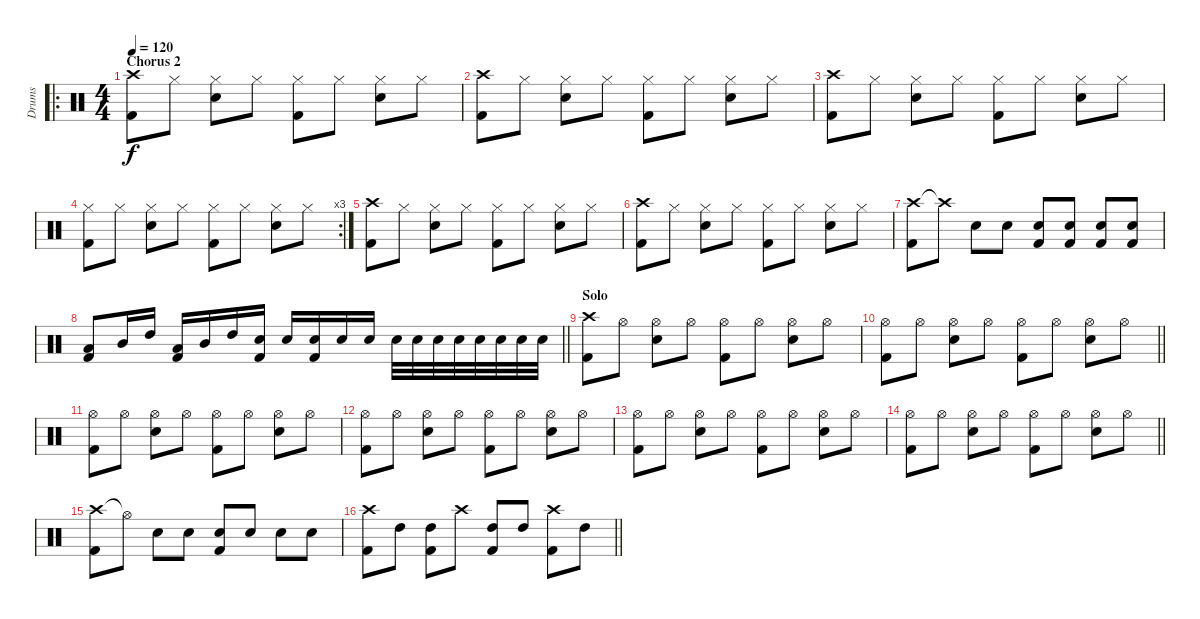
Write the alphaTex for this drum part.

\track ("Drums" "Drums") {instrument percussion}
\staff {score}
\articulation defaults
\ro
\ts (4 4)
\section ("" "Chorus 2")
\tempo 120
\clef neutral
\ks c
("Crash high (hit)" "Kick (hit) 2").8{dy f} "Hi-Hat (closed)".8 ("Hi-Hat (closed)" "Snare (hit) 2").8 "Hi-Hat (closed)".8 ("Hi-Hat (closed)" "Kick (hit) 2").8 "Hi-Hat (closed)".8 ("Hi-Hat (closed)" "Snare (hit) 2").8 "Hi-Hat (closed)".8 |
("Crash high (hit)" "Kick (hit) 2").8 "Hi-Hat (closed)".8 ("Hi-Hat (closed)" "Snare (hit) 2").8 "Hi-Hat (closed)".8 ("Hi-Hat (closed)" "Kick (hit) 2").8 "Hi-Hat (closed)".8 ("Hi-Hat (closed)" "Snare (hit) 2").8 "Hi-Hat (closed)".8 |
("Crash high (hit)" "Kick (hit) 2").8 "Hi-Hat (closed)".8 ("Hi-Hat (closed)" "Snare (hit) 2").8 "Hi-Hat (closed)".8 ("Hi-Hat (closed)" "Kick (hit) 2").8 "Hi-Hat (closed)".8 ("Hi-Hat (closed)" "Snare (hit) 2").8 "Hi-Hat (closed)".8 |
\rc 3
("Hi-Hat (closed)" "Kick (hit) 2").8 "Hi-Hat (closed)".8 ("Hi-Hat (closed)" "Snare (hit) 2").8 "Hi-Hat (closed)".8 ("Hi-Hat (closed)" "Kick (hit) 2").8 "Hi-Hat (closed)".8 ("Hi-Hat (closed)" "Snare (hit) 2").8 "Hi-Hat (closed)".8 |
("Crash high (hit)" "Kick (hit) 2").8 "Hi-Hat (closed)".8 ("Hi-Hat (closed)" "Snare (hit) 2").8 "Hi-Hat (closed)".8 ("Hi-Hat (closed)" "Kick (hit) 2").8 "Hi-Hat (closed)".8 ("Hi-Hat (closed)" "Snare (hit) 2").8 "Hi-Hat (closed)".8 |
("Crash high (hit)" "Kick (hit) 2").8 "Hi-Hat (closed)".8 ("Hi-Hat (closed)" "Snare (hit) 2").8 "Hi-Hat (closed)".8 ("Hi-Hat (closed)" "Kick (hit) 2").8 "Hi-Hat (closed)".8 ("Hi-Hat (closed)" "Snare (hit) 2").8 "Hi-Hat (closed)".8 |
("Crash high (hit)" "Kick (hit) 2").8 "Crash high (hit)"{t}.8 "Snare (hit) 2".8 "Snare (hit) 2".8 ("Snare (hit) 2" "Kick (hit) 2").8 ("Snare (hit) 2" "Kick (hit) 2").8 ("Snare (hit) 2" "Kick (hit) 2").8 ("Snare (hit) 2" "Kick (hit) 2").8 |
\barLineRight lightlight
("Low Tom (hit)" "Kick (hit) 2").8 "Mid Tom (hit)".16 "High Tom (hit)".16 ("Low Tom (hit)" "Kick (hit) 2").16 "Mid Tom (hit)".16 "High Tom (hit)".16 ("Snare (hit) 2" "Kick (hit) 2").16 "Snare (hit) 2".16 ("Snare (hit) 2" "Kick (hit) 2").16 "Snare (hit) 2".16 "Snare (hit) 2".16 "Snare (hit) 2".32 "Snare (hit) 2".32 "Snare (hit) 2".32 "Snare (hit) 2".32 "Snare (hit) 2".32 "Snare (hit) 2".32 "Snare (hit) 2".32 "Snare (hit) 2".32 |
\section ("" "Solo")
("Crash high (hit)" "Kick (hit) 2").8 "Hi-Hat (open)".8 ("Hi-Hat (open)" "Electric Snare (hit)").8 "Hi-Hat (open)".8 ("Hi-Hat (open)" "Kick (hit) 2").8 "Hi-Hat (open)".8 ("Hi-Hat (open)" "Electric Snare (hit)").8 "Hi-Hat (open)".8 |
\barLineRight lightlight
("Hi-Hat (open)" "Kick (hit) 2").8 "Hi-Hat (open)".8 ("Hi-Hat (open)" "Electric Snare (hit)").8 "Hi-Hat (open)".8 ("Hi-Hat (open)" "Kick (hit) 2").8 "Hi-Hat (open)".8 ("Hi-Hat (open)" "Electric Snare (hit)").8 "Hi-Hat (open)".8 |
("Hi-Hat (open)" "Kick (hit) 2").8 "Hi-Hat (open)".8 ("Hi-Hat (open)" "Electric Snare (hit)").8 "Hi-Hat (open)".8 ("Hi-Hat (open)" "Kick (hit) 2").8 "Hi-Hat (open)".8 ("Hi-Hat (open)" "Electric Snare (hit)").8 "Hi-Hat (open)".8 |
("Hi-Hat (open)" "Kick (hit) 2").8 "Hi-Hat (open)".8 ("Hi-Hat (open)" "Electric Snare (hit)").8 "Hi-Hat (open)".8 ("Hi-Hat (open)" "Kick (hit) 2").8 "Hi-Hat (open)".8 ("Hi-Hat (open)" "Electric Snare (hit)").8 "Hi-Hat (open)".8 |
("Hi-Hat (open)" "Kick (hit) 2").8 "Hi-Hat (open)".8 ("Hi-Hat (open)" "Electric Snare (hit)").8 "Hi-Hat (open)".8 ("Hi-Hat (open)" "Kick (hit) 2").8 "Hi-Hat (open)".8 ("Hi-Hat (open)" "Electric Snare (hit)").8 "Hi-Hat (open)".8 |
\barLineRight lightlight
("Hi-Hat (open)" "Kick (hit) 2").8 "Hi-Hat (open)".8 ("Hi-Hat (open)" "Electric Snare (hit)").8 "Hi-Hat (open)".8 ("Hi-Hat (open)" "Kick (hit) 2").8 "Hi-Hat (open)".8 ("Hi-Hat (open)" "Electric Snare (hit)").8 "Hi-Hat (open)".8 |
("Crash high (hit)" "Kick (hit) 2").8 "Hi-Hat (open)"{t}.8 "Electric Snare (hit)".8 "Electric Snare (hit)".8 ("Electric Snare (hit)" "Kick (hit) 2").8 "Electric Snare (hit)".8 "Electric Snare (hit)".8 "Electric Snare (hit)".8 |
\barLineRight lightlight
("Crash high (hit)" "Kick (hit) 2").8 "High Tom (hit)".8 ("High Tom (hit)" "Kick (hit) 2").8 "Crash high (hit)".8 ("High Tom (hit)" "Kick (hit) 2").8 "High Tom (hit)".8 ("Crash high (hit)" "Kick (hit) 2").8 "High Tom (hit)".8
